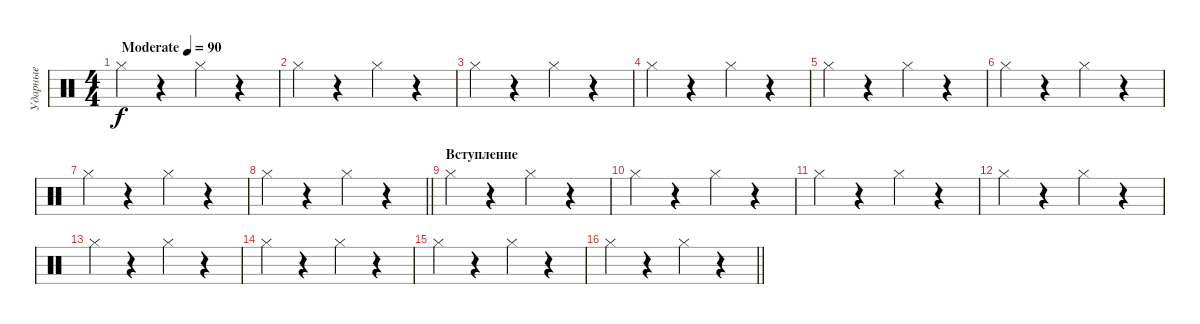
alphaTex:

\track ("Ударные" "Ударные") {instrument percussion}
\staff {score}
\articulation defaults
\ts (4 4)
\tempo (90 "Moderate")
\clef neutral
\ks c "Hi-Hat (closed)".4{dy f}
r.4 "Hi-Hat (closed)".4 r.4 |
"Hi-Hat (closed)".4 r.4 "Hi-Hat (closed)".4 r.4 |
"Hi-Hat (closed)".4 r.4 "Hi-Hat (closed)".4 r.4 |
"Hi-Hat (closed)".4 r.4 "Hi-Hat (closed)".4 r.4 |
"Hi-Hat (closed)".4 r.4 "Hi-Hat (closed)".4 r.4 |
"Hi-Hat (closed)".4 r.4 "Hi-Hat (closed)".4 r.4 |
"Hi-Hat (closed)".4 r.4 "Hi-Hat (closed)".4 r.4 |
\barLineRight lightlight "Hi-Hat (closed)".4
r.4 "Hi-Hat (closed)".4 r.4 |
\section ("" "Вступление")
"Hi-Hat (closed)".4 r.4 "Hi-Hat (closed)".4 r.4 |
"Hi-Hat (closed)".4 r.4 "Hi-Hat (closed)".4 r.4 |
"Hi-Hat (closed)".4 r.4 "Hi-Hat (closed)".4 r.4 |
"Hi-Hat (closed)".4 r.4 "Hi-Hat (closed)".4 r.4 |
"Hi-Hat (closed)".4 r.4 "Hi-Hat (closed)".4 r.4 |
"Hi-Hat (closed)".4 r.4 "Hi-Hat (closed)".4 r.4 |
"Hi-Hat (closed)".4 r.4 "Hi-Hat (closed)".4 r.4 |
\barLineRight lightlight "Hi-Hat (closed)".4
r.4 "Hi-Hat (closed)".4 r.4
